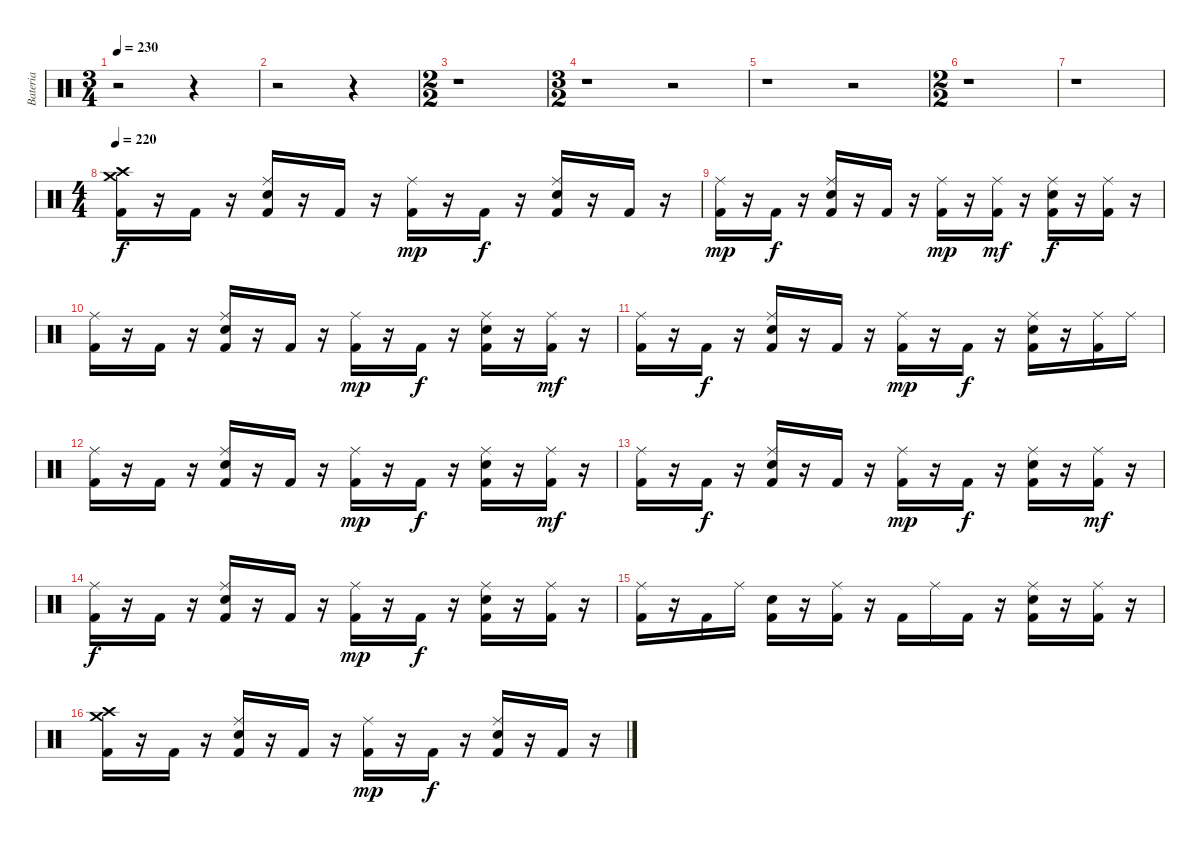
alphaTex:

\track ("Bateria" "Bateria") {instrument percussion}
\staff {score}
\articulation defaults
\ts (3 4)
\tempo 230
\clef neutral
\ks c
r.2{dy f} r.4 |
r.2 r.4 |
\ts (2 2)
r.1 |
\ts (3 2)
r.1 r.2 |
r.1 r.2 |
\ts (2 2)
r.1 |
r.1 |
\ts (4 4)
\tempo 220
("Crash medium (hit)" "Crash high (hit)" "Kick (hit) 2").16 r.16 "Kick (hit) 2".16 r.16 ("Ride (middle)" "Electric Snare (hit)" "Kick (hit) 2").16 r.16 "Kick (hit) 2".16 r.16 ("Ride (middle)" "Kick (hit) 2").16{dy mp} r.16 "Kick (hit) 2".16{dy f} r.16 ("Ride (middle)" "Electric Snare (hit)" "Kick (hit) 2").16 r.16 "Kick (hit) 2".16 r.16 |
("Ride (middle)" "Kick (hit) 2").16{dy mp} r.16 "Kick (hit) 2".16{dy f} r.16 ("Ride (middle)" "Electric Snare (hit)" "Kick (hit) 2").16 r.16 "Kick (hit) 2".16 r.16 ("Ride (middle)" "Kick (hit) 2").16{dy mp} r.16 ("Ride (middle)" "Kick (hit) 2").16{dy mf} r.16 ("Ride (middle)" "Electric Snare (hit)" "Kick (hit) 2").16{dy f} r.16 ("Ride (middle)" "Kick (hit) 2").16 r.16 |
("Ride (middle)" "Kick (hit) 2").16 r.16 "Kick (hit) 2".16 r.16 ("Ride (middle)" "Electric Snare (hit)" "Kick (hit) 2").16 r.16 "Kick (hit) 2".16 r.16 ("Ride (middle)" "Kick (hit) 2").16{dy mp} r.16 "Kick (hit) 2".16{dy f} r.16 ("Ride (middle)" "Electric Snare (hit)" "Kick (hit) 2").16 r.16 ("Ride (middle)" "Kick (hit) 2").16{dy mf} r.16 |
("Ride (middle)" "Kick (hit) 2").16 r.16 "Kick (hit) 2".16{dy f} r.16 ("Ride (middle)" "Electric Snare (hit)" "Kick (hit) 2").16 r.16 "Kick (hit) 2".16 r.16 ("Ride (middle)" "Kick (hit) 2").16{dy mp} r.16 "Kick (hit) 2".16{dy f} r.16 ("Ride (middle)" "Electric Snare (hit)" "Kick (hit) 2").16 r.16 ("Ride (middle)" "Kick (hit) 2").16 "Ride (middle)".16 |
("Ride (middle)" "Kick (hit) 2").16 r.16 "Kick (hit) 2".16 r.16 ("Ride (middle)" "Electric Snare (hit)" "Kick (hit) 2").16 r.16 "Kick (hit) 2".16 r.16 ("Ride (middle)" "Kick (hit) 2").16{dy mp} r.16 "Kick (hit) 2".16{dy f} r.16 ("Ride (middle)" "Electric Snare (hit)" "Kick (hit) 2").16 r.16 ("Ride (middle)" "Kick (hit) 2").16{dy mf} r.16 |
("Ride (middle)" "Kick (hit) 2").16 r.16 "Kick (hit) 2".16{dy f} r.16 ("Ride (middle)" "Electric Snare (hit)" "Kick (hit) 2").16 r.16 "Kick (hit) 2".16 r.16 ("Ride (middle)" "Kick (hit) 2").16{dy mp} r.16 "Kick (hit) 2".16{dy f} r.16 ("Ride (middle)" "Electric Snare (hit)" "Kick (hit) 2").16 r.16 ("Ride (middle)" "Kick (hit) 2").16{dy mf} r.16 |
("Ride (middle)" "Kick (hit) 2").16{dy f} r.16 "Kick (hit) 2".16 r.16 ("Ride (middle)" "Electric Snare (hit)" "Kick (hit) 2").16 r.16 "Kick (hit) 2".16 r.16 ("Ride (middle)" "Kick (hit) 2").16{dy mp} r.16 "Kick (hit) 2".16{dy f} r.16 ("Ride (middle)" "Electric Snare (hit)" "Kick (hit) 2").16 r.16 ("Ride (middle)" "Kick (hit) 2").16 r.16 |
("Ride (middle)" "Kick (hit) 2").16 r.16 "Kick (hit) 2".16 "Ride (middle)".16 ("Electric Snare (hit)" "Kick (hit) 2").16 r.16 ("Ride (middle)" "Kick (hit) 2").16 r.16 "Kick (hit) 2".16 "Ride (middle)".16 "Kick (hit) 2".16 r.16 ("Ride (middle)" "Electric Snare (hit)" "Kick (hit) 2").16 r.16 ("Ride (middle)" "Kick (hit) 2").16 r.16 |
("Crash medium (hit)" "Crash high (hit)" "Kick (hit) 2").16 r.16 "Kick (hit) 2".16 r.16 ("Ride (middle)" "Electric Snare (hit)" "Kick (hit) 2").16 r.16 "Kick (hit) 2".16 r.16 ("Ride (middle)" "Kick (hit) 2").16{dy mp} r.16 "Kick (hit) 2".16{dy f} r.16 ("Ride (middle)" "Electric Snare (hit)" "Kick (hit) 2").16 r.16 "Kick (hit) 2".16 r.16
